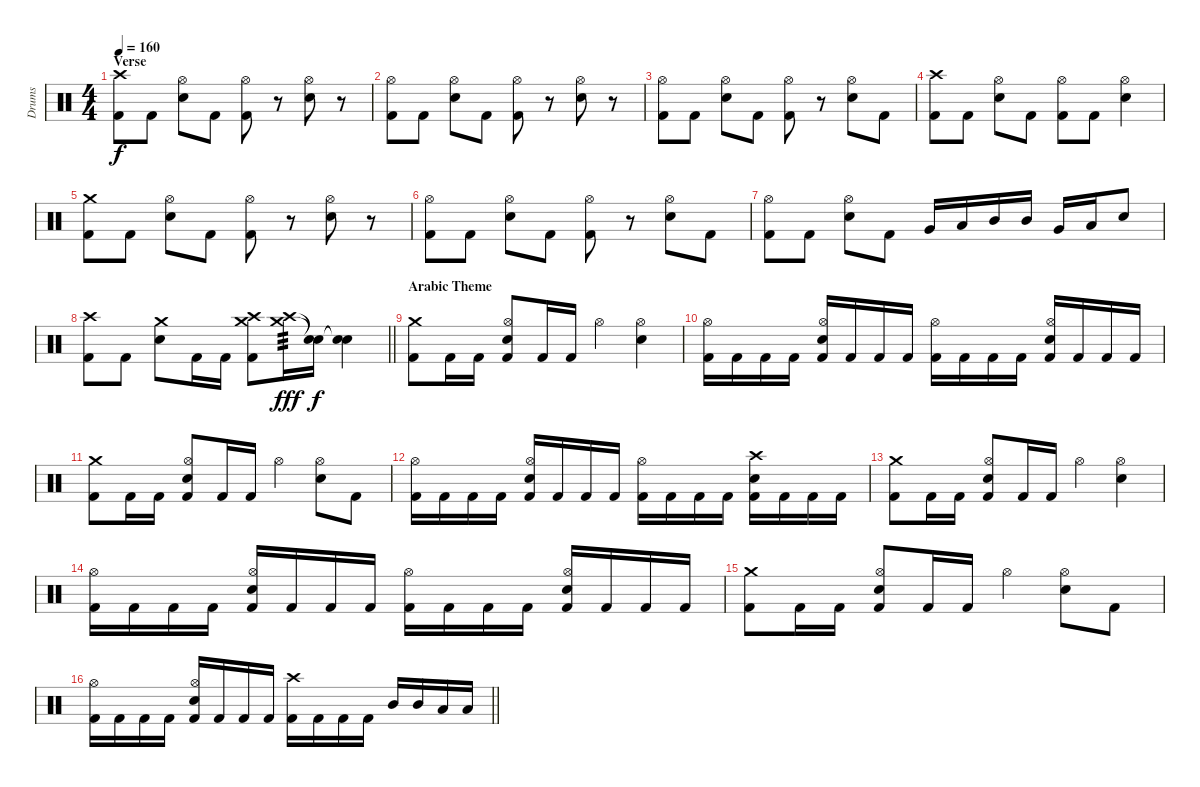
\track ("Drums" "Drums") {instrument percussion}
\staff {score}
\articulation defaults
\ts (4 4)
\section ("" "Verse")
\tempo 160
\clef neutral
\ks aminor
("Crash high (hit)" "Kick (hit) 2").8{dy f} "Kick (hit) 2".8 ("Hi-Hat (open)" "Electric Snare (hit)").8 "Kick (hit) 2".8 ("Hi-Hat (open)" "Kick (hit) 2").8 r.8 ("Hi-Hat (open)" "Electric Snare (hit)").8 r.8 |
("Hi-Hat (open)" "Kick (hit) 2").8 "Kick (hit) 2".8 ("Hi-Hat (open)" "Electric Snare (hit)").8 "Kick (hit) 2".8 ("Hi-Hat (open)" "Kick (hit) 2").8 r.8 ("Hi-Hat (open)" "Electric Snare (hit)").8 r.8 |
("Hi-Hat (open)" "Kick (hit) 2").8 "Kick (hit) 2".8 ("Hi-Hat (open)" "Electric Snare (hit)").8 "Kick (hit) 2".8 ("Hi-Hat (open)" "Kick (hit) 2").8 r.8 ("Hi-Hat (open)" "Electric Snare (hit)").8 "Kick (hit) 2".8 |
("Crash high (hit)" "Kick (hit) 2").8 "Kick (hit) 2".8 ("Hi-Hat (open)" "Electric Snare (hit)").8 "Kick (hit) 2".8 ("Hi-Hat (open)" "Kick (hit) 2").8 "Kick (hit) 2".8 ("Hi-Hat (open)" "Electric Snare (hit)").4 |
("Crash medium (hit)" "Kick (hit) 2").8 "Kick (hit) 2".8 ("Hi-Hat (open)" "Electric Snare (hit)").8 "Kick (hit) 2".8 ("Hi-Hat (open)" "Kick (hit) 2").8 r.8 ("Hi-Hat (open)" "Electric Snare (hit)").8 r.8 |
("Hi-Hat (open)" "Kick (hit) 2").8 "Kick (hit) 2".8 ("Hi-Hat (open)" "Electric Snare (hit)").8 "Kick (hit) 2".8 ("Hi-Hat (open)" "Kick (hit) 2").8 r.8 ("Hi-Hat (open)" "Electric Snare (hit)").8 "Kick (hit) 2".8 |
("Hi-Hat (open)" "Kick (hit) 2").8 "Kick (hit) 2".8 ("Hi-Hat (open)" "Electric Snare (hit)").8 "Kick (hit) 2".8 "Very Low Tom (hit)".16 "Low Tom (hit)".16 "Mid Tom (hit)".16 "Mid Tom (hit)".16 "Very Low Tom (hit)".16 "Low Tom (hit)".16 "Electric Snare (hit)".8 |
\barLineRight lightlight
("Crash high (hit)" "Kick (hit) 2").8 "Kick (hit) 2".8 ("Crash medium (hit)" "Electric Snare (hit)").8 "Kick (hit) 2".16 "Kick (hit) 2".16 ("Crash high (hit)" "Crash medium (hit)" "Kick (hit) 2").8 ("Crash medium (hit)" "Crash high (hit)").16{tp 3 dy fff volume 0} ("Snare (hit)"{t} "Snare (hit)"{t}).16{dy f volume 13} ("Snare (hit)"{t} "Snare (hit)"{t}).4 |
\section ("" "Arabic Theme")
("Crash medium (hit)" "Kick (hit) 2").8 "Kick (hit) 2".16 "Kick (hit) 2".16 ("Hi-Hat (open)" "Electric Snare (hit)" "Kick (hit) 2").8 "Kick (hit) 2".16 "Kick (hit) 2".16 "Hi-Hat (open)".4 ("Hi-Hat (open)" "Electric Snare (hit)").4 |
("Hi-Hat (open)" "Kick (hit) 2").16 "Kick (hit) 2".16 "Kick (hit) 2".16 "Kick (hit) 2".16 ("Hi-Hat (open)" "Electric Snare (hit)" "Kick (hit) 2").16 "Kick (hit) 2".16 "Kick (hit) 2".16 "Kick (hit) 2".16 ("Hi-Hat (open)" "Kick (hit) 2").16 "Kick (hit) 2".16 "Kick (hit) 2".16 "Kick (hit) 2".16 ("Hi-Hat (open)" "Electric Snare (hit)" "Kick (hit) 2").16 "Kick (hit) 2".16 "Kick (hit) 2".16 "Kick (hit) 2".16 |
("Crash medium (hit)" "Kick (hit) 2").8 "Kick (hit) 2".16 "Kick (hit) 2".16 ("Hi-Hat (open)" "Electric Snare (hit)" "Kick (hit) 2").8 "Kick (hit) 2".16 "Kick (hit) 2".16 "Hi-Hat (open)".4 ("Hi-Hat (open)" "Electric Snare (hit)").8 "Kick (hit) 2".8 |
("Hi-Hat (open)" "Kick (hit) 2").16 "Kick (hit) 2".16 "Kick (hit) 2".16 "Kick (hit) 2".16 ("Hi-Hat (open)" "Electric Snare (hit)" "Kick (hit) 2").16 "Kick (hit) 2".16 "Kick (hit) 2".16 "Kick (hit) 2".16 ("Hi-Hat (open)" "Kick (hit) 2").16 "Kick (hit) 2".16 "Kick (hit) 2".16 "Kick (hit) 2".16 ("Crash high (hit)" "Electric Snare (hit)" "Kick (hit) 2").16 "Kick (hit) 2".16 "Kick (hit) 2".16 "Kick (hit) 2".16 |
("Crash medium (hit)" "Kick (hit) 2").8 "Kick (hit) 2".16 "Kick (hit) 2".16 ("Hi-Hat (open)" "Electric Snare (hit)" "Kick (hit) 2").8 "Kick (hit) 2".16 "Kick (hit) 2".16 "Hi-Hat (open)".4 ("Hi-Hat (open)" "Electric Snare (hit)").4 |
("Hi-Hat (open)" "Kick (hit) 2").16 "Kick (hit) 2".16 "Kick (hit) 2".16 "Kick (hit) 2".16 ("Hi-Hat (open)" "Electric Snare (hit)" "Kick (hit) 2").16 "Kick (hit) 2".16 "Kick (hit) 2".16 "Kick (hit) 2".16 ("Hi-Hat (open)" "Kick (hit) 2").16 "Kick (hit) 2".16 "Kick (hit) 2".16 "Kick (hit) 2".16 ("Hi-Hat (open)" "Electric Snare (hit)" "Kick (hit) 2").16 "Kick (hit) 2".16 "Kick (hit) 2".16 "Kick (hit) 2".16 |
("Crash medium (hit)" "Kick (hit) 2").8 "Kick (hit) 2".16 "Kick (hit) 2".16 ("Hi-Hat (open)" "Electric Snare (hit)" "Kick (hit) 2").8 "Kick (hit) 2".16 "Kick (hit) 2".16 "Hi-Hat (open)".4 ("Hi-Hat (open)" "Electric Snare (hit)").8 "Kick (hit) 2".8 |
\barLineRight lightlight
("Hi-Hat (open)" "Kick (hit) 2").16 "Kick (hit) 2".16 "Kick (hit) 2".16 "Kick (hit) 2".16 ("Hi-Hat (open)" "Electric Snare (hit)" "Kick (hit) 2").16 "Kick (hit) 2".16 "Kick (hit) 2".16 "Kick (hit) 2".16 ("Crash high (hit)" "Kick (hit) 2").16 "Kick (hit) 2".16 "Kick (hit) 2".16 "Kick (hit) 2".16 "Mid Tom (hit)".16 "Mid Tom (hit)".16 "Low Tom (hit)".16 "Low Tom (hit)".16
